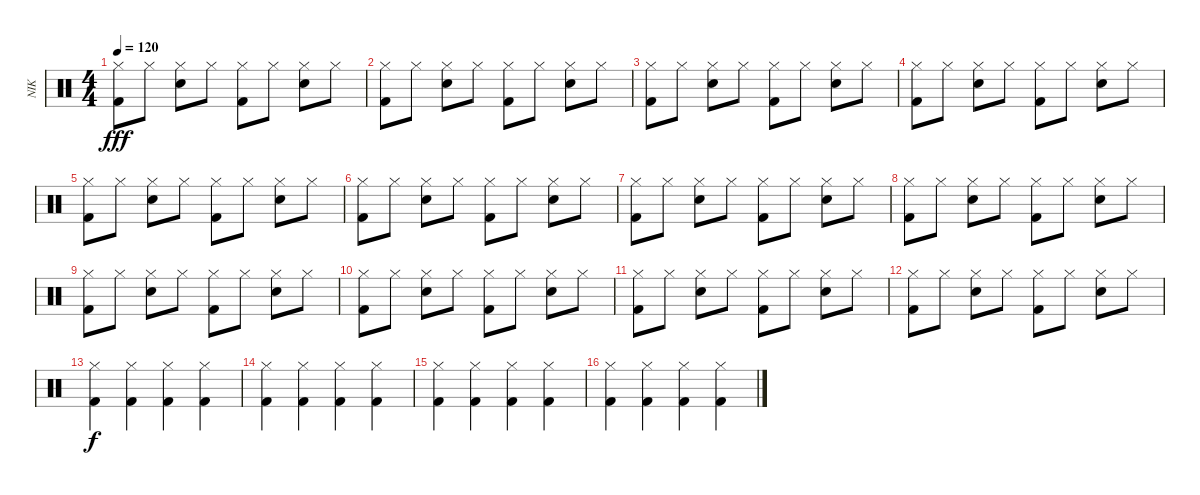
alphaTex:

\track ("NIK" "NIK") {instrument percussion}
\staff {score}
\articulation defaults
\ts (4 4)
\tempo 120
\clef neutral
\ks c
("Hi-Hat (closed)" "Kick (hit) 2").8{dy fff} "Hi-Hat (closed)".8 ("Hi-Hat (closed)" "Electric Snare (hit)").8 "Hi-Hat (closed)".8 ("Hi-Hat (closed)" "Kick (hit) 2").8 "Hi-Hat (closed)".8 ("Hi-Hat (closed)" "Electric Snare (hit)").8 "Hi-Hat (closed)".8 |
("Hi-Hat (closed)" "Kick (hit) 2").8 "Hi-Hat (closed)".8 ("Hi-Hat (closed)" "Electric Snare (hit)").8 "Hi-Hat (closed)".8 ("Hi-Hat (closed)" "Kick (hit) 2").8 "Hi-Hat (closed)".8 ("Hi-Hat (closed)" "Electric Snare (hit)").8 "Hi-Hat (closed)".8 |
("Hi-Hat (closed)" "Kick (hit) 2").8 "Hi-Hat (closed)".8 ("Hi-Hat (closed)" "Electric Snare (hit)").8 "Hi-Hat (closed)".8 ("Hi-Hat (closed)" "Kick (hit) 2").8 "Hi-Hat (closed)".8 ("Hi-Hat (closed)" "Electric Snare (hit)").8 "Hi-Hat (closed)".8 |
("Hi-Hat (closed)" "Kick (hit) 2").8 "Hi-Hat (closed)".8 ("Hi-Hat (closed)" "Electric Snare (hit)").8 "Hi-Hat (closed)".8 ("Hi-Hat (closed)" "Kick (hit) 2").8 "Hi-Hat (closed)".8 ("Hi-Hat (closed)" "Electric Snare (hit)").8 "Hi-Hat (closed)".8 |
("Hi-Hat (closed)" "Kick (hit) 2").8 "Hi-Hat (closed)".8 ("Hi-Hat (closed)" "Electric Snare (hit)").8 "Hi-Hat (closed)".8 ("Hi-Hat (closed)" "Kick (hit) 2").8 "Hi-Hat (closed)".8 ("Hi-Hat (closed)" "Electric Snare (hit)").8 "Hi-Hat (closed)".8 |
("Hi-Hat (closed)" "Kick (hit) 2").8 "Hi-Hat (closed)".8 ("Hi-Hat (closed)" "Electric Snare (hit)").8 "Hi-Hat (closed)".8 ("Hi-Hat (closed)" "Kick (hit) 2").8 "Hi-Hat (closed)".8 ("Hi-Hat (closed)" "Electric Snare (hit)").8 "Hi-Hat (closed)".8 |
("Hi-Hat (closed)" "Kick (hit) 2").8 "Hi-Hat (closed)".8 ("Hi-Hat (closed)" "Electric Snare (hit)").8 "Hi-Hat (closed)".8 ("Hi-Hat (closed)" "Kick (hit) 2").8 "Hi-Hat (closed)".8 ("Hi-Hat (closed)" "Electric Snare (hit)").8 "Hi-Hat (closed)".8 |
("Hi-Hat (closed)" "Kick (hit) 2").8 "Hi-Hat (closed)".8 ("Hi-Hat (closed)" "Electric Snare (hit)").8 "Hi-Hat (closed)".8 ("Hi-Hat (closed)" "Kick (hit) 2").8 "Hi-Hat (closed)".8 ("Hi-Hat (closed)" "Electric Snare (hit)").8 "Hi-Hat (closed)".8 |
("Hi-Hat (closed)" "Kick (hit) 2").8 "Hi-Hat (closed)".8 ("Hi-Hat (closed)" "Electric Snare (hit)").8 "Hi-Hat (closed)".8 ("Hi-Hat (closed)" "Kick (hit) 2").8 "Hi-Hat (closed)".8 ("Hi-Hat (closed)" "Electric Snare (hit)").8 "Hi-Hat (closed)".8 |
("Hi-Hat (closed)" "Kick (hit) 2").8 "Hi-Hat (closed)".8 ("Hi-Hat (closed)" "Electric Snare (hit)").8 "Hi-Hat (closed)".8 ("Hi-Hat (closed)" "Kick (hit) 2").8 "Hi-Hat (closed)".8 ("Hi-Hat (closed)" "Electric Snare (hit)").8 "Hi-Hat (closed)".8 |
("Hi-Hat (closed)" "Kick (hit) 2").8 "Hi-Hat (closed)".8 ("Hi-Hat (closed)" "Electric Snare (hit)").8 "Hi-Hat (closed)".8 ("Hi-Hat (closed)" "Kick (hit) 2").8 "Hi-Hat (closed)".8 ("Hi-Hat (closed)" "Electric Snare (hit)").8 "Hi-Hat (closed)".8 |
("Hi-Hat (closed)" "Kick (hit) 2").8 "Hi-Hat (closed)".8 ("Hi-Hat (closed)" "Electric Snare (hit)").8 "Hi-Hat (closed)".8 ("Hi-Hat (closed)" "Kick (hit) 2").8 "Hi-Hat (closed)".8 ("Hi-Hat (closed)" "Electric Snare (hit)").8 "Hi-Hat (closed)".8 |
("Hi-Hat (closed)" "Kick (hit) 2").4{dy f} ("Hi-Hat (closed)" "Kick (hit) 2").4 ("Hi-Hat (closed)" "Kick (hit) 2").4 ("Hi-Hat (closed)" "Kick (hit) 2").4 |
("Hi-Hat (closed)" "Kick (hit) 2").4 ("Hi-Hat (closed)" "Kick (hit) 2").4 ("Hi-Hat (closed)" "Kick (hit) 2").4 ("Hi-Hat (closed)" "Kick (hit) 2").4 |
("Hi-Hat (closed)" "Kick (hit) 2").4 ("Hi-Hat (closed)" "Kick (hit) 2").4 ("Hi-Hat (closed)" "Kick (hit) 2").4 ("Hi-Hat (closed)" "Kick (hit) 2").4 |
("Hi-Hat (closed)" "Kick (hit) 2").4 ("Hi-Hat (closed)" "Kick (hit) 2").4 ("Hi-Hat (closed)" "Kick (hit) 2").4 ("Hi-Hat (closed)" "Kick (hit) 2").4
